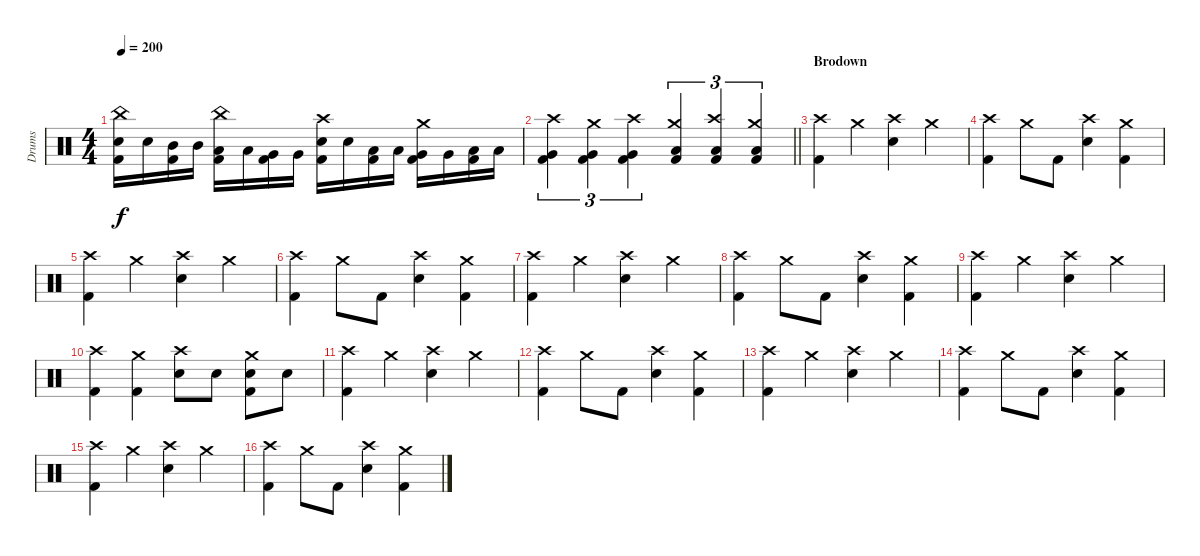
\track ("Drums" "Drums") {instrument percussion}
\staff {score}
\articulation defaults
\ts (4 4)
\tempo 200
\clef neutral
\ks c
("China (hit)" "Snare (hit) 2" "Kick (hit) 2").16{dy f} "Snare (hit) 2".16 ("Mid Tom (hit)" "Kick (hit) 2").16 "Mid Tom (hit)".16 ("China (hit)" "Low Tom (hit)" "Kick (hit) 2").16 "Low Tom (hit)".16 ("Very Low Tom (hit)" "Kick (hit) 2").16 "Very Low Tom (hit)".16 ("Crash high (hit)" "Snare (hit) 2" "Kick (hit) 2").16 "Snare (hit) 2".16 ("Low Tom (hit)" "Kick (hit) 2").16 "Low Tom (hit)".16 ("Crash medium (hit)" "Very Low Tom (hit)" "Kick (hit) 2").16 "Very Low Tom (hit)".16 ("Low Floor Tom (hit)" "Kick (hit) 2").16 "Low Floor Tom (hit)".16 |
\barLineRight lightlight
("Crash high (hit)" "Very Low Tom (hit)" "Kick (hit) 2").4{tu (3 2)} ("Crash medium (hit)" "Very Low Tom (hit)" "Kick (hit) 2").4{tu (3 2)} ("Crash high (hit)" "Very Low Tom (hit)" "Kick (hit) 2").4{tu (3 2)} ("Crash medium (hit)" "Low Floor Tom (hit)" "Kick (hit) 2").4{tu (3 2)} ("Crash high (hit)" "Low Floor Tom (hit)" "Kick (hit) 2").4{tu (3 2)} ("Crash medium (hit)" "Low Floor Tom (hit)" "Kick (hit) 2").4{tu (3 2)} |
\section ("" "Brodown")
("Crash high (hit)" "Kick (hit) 2").4 "Crash medium (hit)".4 ("Crash high (hit)" "Snare (hit) 2").4 "Crash medium (hit)".4 |
("Crash high (hit)" "Kick (hit) 2").4 "Crash medium (hit)".8 "Kick (hit) 2".8 ("Crash high (hit)" "Snare (hit) 2").4 ("Crash medium (hit)" "Kick (hit) 2").4 |
("Crash high (hit)" "Kick (hit) 2").4 "Crash medium (hit)".4 ("Crash high (hit)" "Snare (hit) 2").4 "Crash medium (hit)".4 |
("Crash high (hit)" "Kick (hit) 2").4 "Crash medium (hit)".8 "Kick (hit) 2".8 ("Crash high (hit)" "Snare (hit) 2").4 ("Crash medium (hit)" "Kick (hit) 2").4 |
("Crash high (hit)" "Kick (hit) 2").4 "Crash medium (hit)".4 ("Crash high (hit)" "Snare (hit) 2").4 "Crash medium (hit)".4 |
("Crash high (hit)" "Kick (hit) 2").4 "Crash medium (hit)".8 "Kick (hit) 2".8 ("Crash high (hit)" "Snare (hit) 2").4 ("Crash medium (hit)" "Kick (hit) 2").4 |
("Crash high (hit)" "Kick (hit) 2").4 "Crash medium (hit)".4 ("Crash high (hit)" "Snare (hit) 2").4 "Crash medium (hit)".4 |
("Crash high (hit)" "Kick (hit) 2").4 ("Crash medium (hit)" "Kick (hit) 2").4 ("Crash high (hit)" "Snare (hit) 2").8 "Snare (hit) 2".8 ("Crash medium (hit)" "Snare (hit) 2" "Kick (hit) 2").8 "Snare (hit) 2".8 |
("Crash high (hit)" "Kick (hit) 2").4 "Crash medium (hit)".4 ("Crash high (hit)" "Snare (hit) 2").4 "Crash medium (hit)".4 |
("Crash high (hit)" "Kick (hit) 2").4 "Crash medium (hit)".8 "Kick (hit) 2".8 ("Crash high (hit)" "Snare (hit) 2").4 ("Crash medium (hit)" "Kick (hit) 2").4 |
("Crash high (hit)" "Kick (hit) 2").4 "Crash medium (hit)".4 ("Crash high (hit)" "Snare (hit) 2").4 "Crash medium (hit)".4 |
("Crash high (hit)" "Kick (hit) 2").4 "Crash medium (hit)".8 "Kick (hit) 2".8 ("Crash high (hit)" "Snare (hit) 2").4 ("Crash medium (hit)" "Kick (hit) 2").4 |
("Crash high (hit)" "Kick (hit) 2").4 "Crash medium (hit)".4 ("Crash high (hit)" "Snare (hit) 2").4 "Crash medium (hit)".4 |
("Crash high (hit)" "Kick (hit) 2").4 "Crash medium (hit)".8 "Kick (hit) 2".8 ("Crash high (hit)" "Snare (hit) 2").4 ("Crash medium (hit)" "Kick (hit) 2").4
